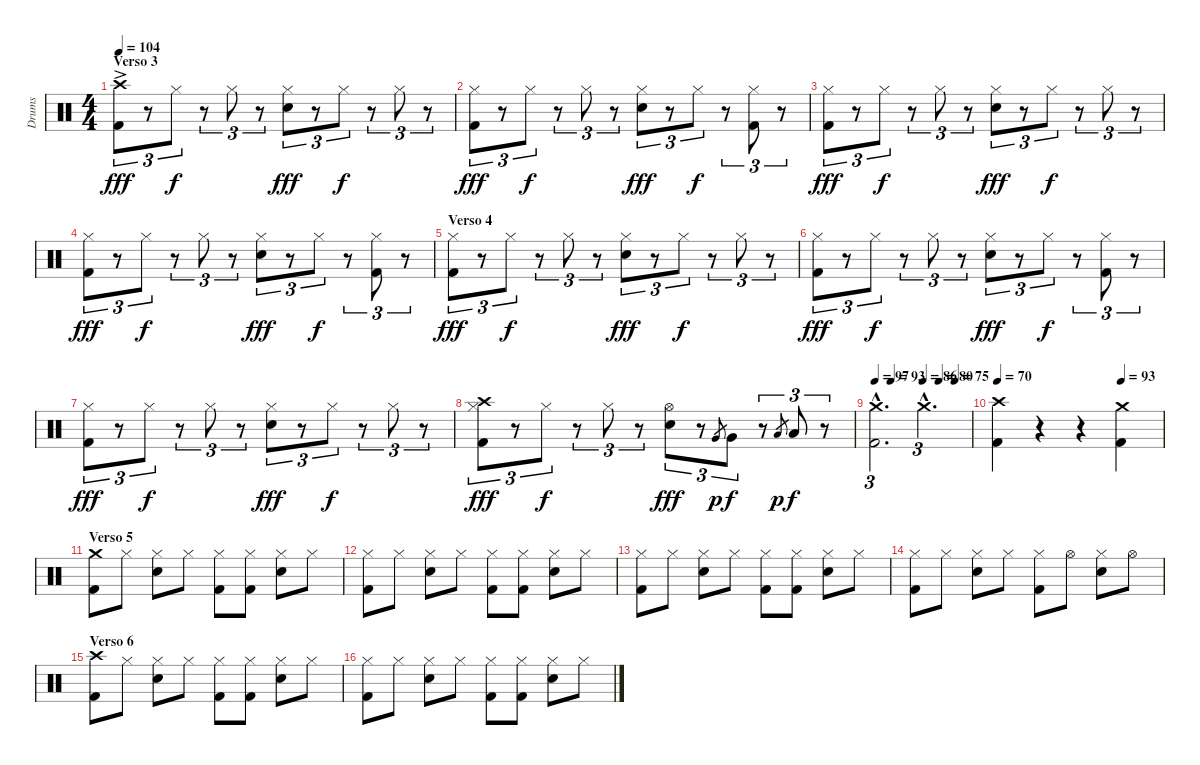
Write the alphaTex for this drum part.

\track ("Drums" "Drums") {instrument percussion}
\staff {score}
\articulation defaults
\ts (4 4)
\section ("" "Verso 3")
\tempo 104
\clef neutral
\ks c
("Crash high (hit)"{ac} "Kick (hit) 2").8{tu (3 2) dy fff} r.8{tu (3 2)} "Hi-Hat (closed)".8{tu (3 2) dy f} r.8{tu (3 2)} "Hi-Hat (closed)".8{tu (3 2)} r.8{tu (3 2)} ("Hi-Hat (closed)" "Electric Snare (hit)").8{tu (3 2) dy fff} r.8{tu (3 2)} "Hi-Hat (closed)".8{tu (3 2) dy f} r.8{tu (3 2)} "Hi-Hat (closed)".8{tu (3 2)} r.8{tu (3 2)} |
("Hi-Hat (closed)" "Kick (hit) 2").8{tu (3 2) dy fff} r.8{tu (3 2)} "Hi-Hat (closed)".8{tu (3 2) dy f} r.8{tu (3 2)} "Hi-Hat (closed)".8{tu (3 2)} r.8{tu (3 2)} ("Hi-Hat (closed)" "Electric Snare (hit)").8{tu (3 2) dy fff} r.8{tu (3 2)} "Hi-Hat (closed)".8{tu (3 2) dy f} r.8{tu (3 2)} ("Hi-Hat (closed)" "Kick (hit) 2").8{tu (3 2)} r.8{tu (3 2)} |
("Hi-Hat (closed)" "Kick (hit) 2").8{tu (3 2) dy fff} r.8{tu (3 2)} "Hi-Hat (closed)".8{tu (3 2) dy f} r.8{tu (3 2)} "Hi-Hat (closed)".8{tu (3 2)} r.8{tu (3 2)} ("Hi-Hat (closed)" "Electric Snare (hit)").8{tu (3 2) dy fff} r.8{tu (3 2)} "Hi-Hat (closed)".8{tu (3 2) dy f} r.8{tu (3 2)} "Hi-Hat (closed)".8{tu (3 2)} r.8{tu (3 2)} |
("Hi-Hat (closed)" "Kick (hit) 2").8{tu (3 2) dy fff} r.8{tu (3 2)} "Hi-Hat (closed)".8{tu (3 2) dy f} r.8{tu (3 2)} "Hi-Hat (closed)".8{tu (3 2)} r.8{tu (3 2)} ("Hi-Hat (closed)" "Electric Snare (hit)").8{tu (3 2) dy fff} r.8{tu (3 2)} "Hi-Hat (closed)".8{tu (3 2) dy f} r.8{tu (3 2)} ("Hi-Hat (closed)" "Kick (hit) 2").8{tu (3 2)} r.8{tu (3 2)} |
\section ("" "Verso 4")
("Hi-Hat (closed)" "Kick (hit) 2").8{tu (3 2) dy fff} r.8{tu (3 2)} "Hi-Hat (closed)".8{tu (3 2) dy f} r.8{tu (3 2)} "Hi-Hat (closed)".8{tu (3 2)} r.8{tu (3 2)} ("Hi-Hat (closed)" "Electric Snare (hit)").8{tu (3 2) dy fff} r.8{tu (3 2)} "Hi-Hat (closed)".8{tu (3 2) dy f} r.8{tu (3 2)} "Hi-Hat (closed)".8{tu (3 2)} r.8{tu (3 2)} |
("Hi-Hat (closed)" "Kick (hit) 2").8{tu (3 2) dy fff} r.8{tu (3 2)} "Hi-Hat (closed)".8{tu (3 2) dy f} r.8{tu (3 2)} "Hi-Hat (closed)".8{tu (3 2)} r.8{tu (3 2)} ("Hi-Hat (closed)" "Electric Snare (hit)").8{tu (3 2) dy fff} r.8{tu (3 2)} "Hi-Hat (closed)".8{tu (3 2) dy f} r.8{tu (3 2)} ("Hi-Hat (closed)" "Kick (hit) 2").8{tu (3 2)} r.8{tu (3 2)} |
("Hi-Hat (closed)" "Kick (hit) 2").8{tu (3 2) dy fff} r.8{tu (3 2)} "Hi-Hat (closed)".8{tu (3 2) dy f} r.8{tu (3 2)} "Hi-Hat (closed)".8{tu (3 2)} r.8{tu (3 2)} ("Hi-Hat (closed)" "Electric Snare (hit)").8{tu (3 2) dy fff} r.8{tu (3 2)} "Hi-Hat (closed)".8{tu (3 2) dy f} r.8{tu (3 2)} "Hi-Hat (closed)".8{tu (3 2)} r.8{tu (3 2)} |
("Crash high (hit)" "Hi-Hat (closed)" "Kick (hit) 2").8{tu (3 2) dy fff} r.8{tu (3 2)} "Hi-Hat (closed)".8{tu (3 2) dy f} r.8{tu (3 2)} "Hi-Hat (closed)".8{tu (3 2)} r.8{tu (3 2)} ("Hi-Hat (open)" "Electric Snare (hit)").8{tu (3 2) dy fff} r.8{tu (3 2)} "Very Low Tom (hit)".8{gr dy p} "Very Low Tom (hit)".8{tu (3 2) dy f} r.8{tu (3 2)} "Low Tom (hit)".8{gr dy p} "Low Tom (hit)".8{tu (3 2) dy f} r.8{tu (3 2)} |
\tempo 97
\tempo (93 0.16666666666666666)
\tempo (86 0.5)
\tempo (80 0.6666666666666666)
\tempo (75 0.8333333333333334)
("Crash medium (hit)"{hac} "Kick (hit) 2"{hac}).2{d tu (3 2)} "Crash medium (hit)"{hac}.2{d tu (3 2)} |
\tempo (93 0.75)
\tempo 70
("Crash high (hit)" "Kick (hit) 2").4 r.4 r.4 ("Crash medium (hit)" "Kick (hit) 2").4 |
\section ("" "Verso 5")
("Crash medium (hit)" "Kick (hit) 2").8 "Hi-Hat (closed)".8 ("Hi-Hat (closed)" "Electric Snare (hit)").8 "Hi-Hat (closed)".8 ("Hi-Hat (closed)" "Kick (hit) 2").8 ("Hi-Hat (closed)" "Kick (hit) 2").8 ("Hi-Hat (closed)" "Electric Snare (hit)").8 "Hi-Hat (closed)".8 |
("Hi-Hat (closed)" "Kick (hit) 2").8 "Hi-Hat (closed)".8 ("Hi-Hat (closed)" "Electric Snare (hit)").8 "Hi-Hat (closed)".8 ("Hi-Hat (closed)" "Kick (hit) 2").8 ("Hi-Hat (closed)" "Kick (hit) 2").8 ("Hi-Hat (closed)" "Electric Snare (hit)").8 "Hi-Hat (closed)".8 |
("Hi-Hat (closed)" "Kick (hit) 2").8 "Hi-Hat (closed)".8 ("Hi-Hat (closed)" "Electric Snare (hit)").8 "Hi-Hat (closed)".8 ("Hi-Hat (closed)" "Kick (hit) 2").8 ("Hi-Hat (closed)" "Kick (hit) 2").8 ("Hi-Hat (closed)" "Electric Snare (hit)").8 "Hi-Hat (closed)".8 |
("Hi-Hat (closed)" "Kick (hit) 2").8 "Hi-Hat (closed)".8 ("Hi-Hat (closed)" "Electric Snare (hit)").8 "Hi-Hat (closed)".8 ("Hi-Hat (closed)" "Kick (hit) 2").8 "Hi-Hat (open)".8 ("Hi-Hat (closed)" "Electric Snare (hit)").8 "Hi-Hat (open)".8 |
\section ("" "Verso 6")
("Crash high (hit)" "Kick (hit) 2").8 "Hi-Hat (closed)".8 ("Hi-Hat (closed)" "Electric Snare (hit)").8 "Hi-Hat (closed)".8 ("Hi-Hat (closed)" "Kick (hit) 2").8 ("Hi-Hat (closed)" "Kick (hit) 2").8 ("Hi-Hat (closed)" "Electric Snare (hit)").8 "Hi-Hat (closed)".8 |
("Hi-Hat (closed)" "Kick (hit) 2").8 "Hi-Hat (closed)".8 ("Hi-Hat (closed)" "Electric Snare (hit)").8 "Hi-Hat (closed)".8 ("Hi-Hat (closed)" "Kick (hit) 2").8 ("Hi-Hat (closed)" "Kick (hit) 2").8 ("Hi-Hat (closed)" "Electric Snare (hit)").8 "Hi-Hat (closed)".8
